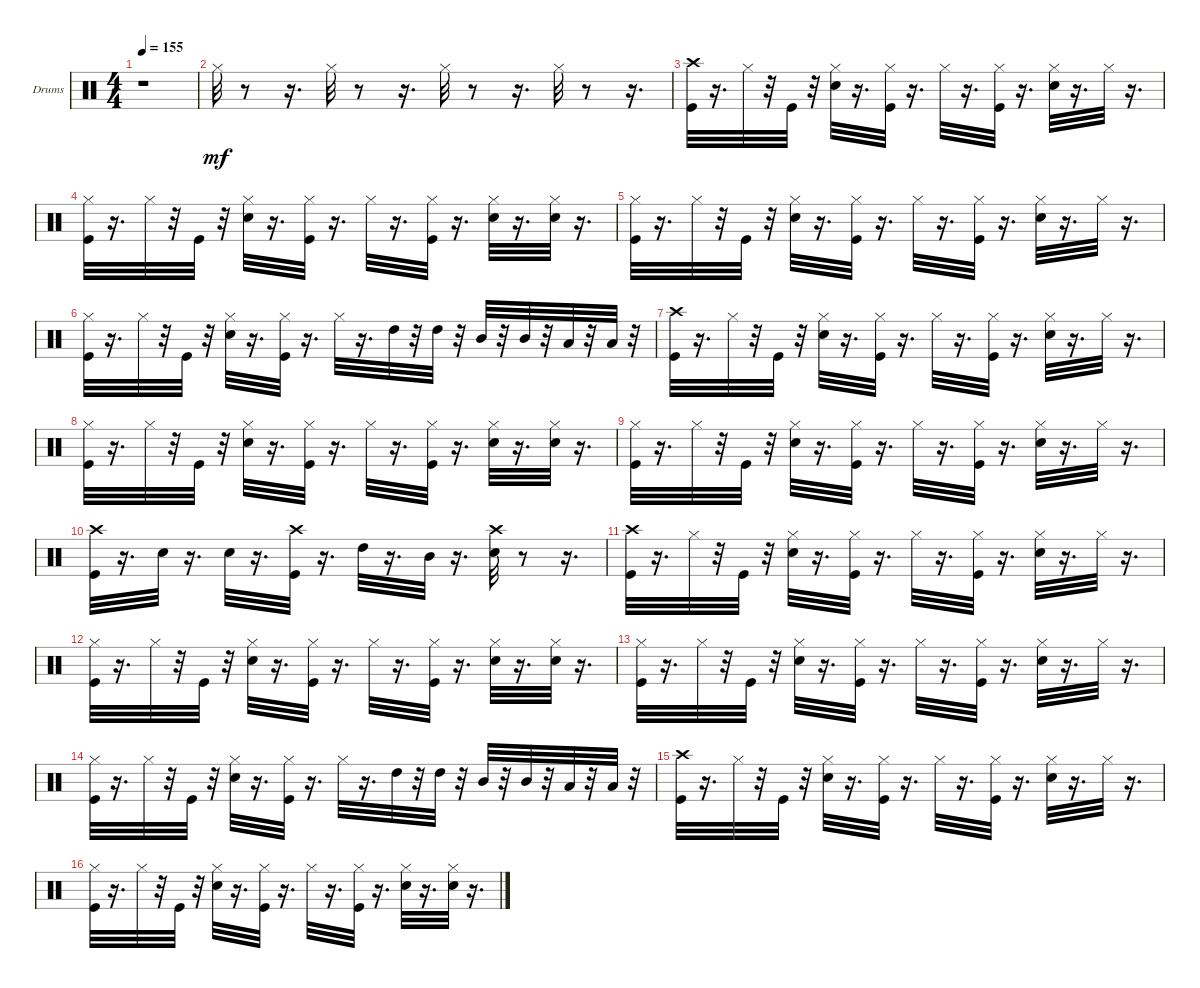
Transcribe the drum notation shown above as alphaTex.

\bracketExtendMode groupsimilarinstruments
\firstSystemTrackNameOrientation horizontal
\otherSystemsTrackNameOrientation horizontal
\track ("" "Drums") {instrument percussion}
\staff {score}
\articulation defaults
\ts (4 4)
\tempo 155
\clef neutral
\ks c
r.1{dy mf} |
"Hi-Hat (closed)".32 r.8 r.16{d} "Hi-Hat (closed)".32 r.8 r.16{d} "Hi-Hat (closed)".32 r.8 r.16{d} "Hi-Hat (closed)".32 r.8 r.16{d} |
("Crash high (hit)" "Kick (hit)").32 r.16{d} "Hi-Hat (closed)".32 r.32 "Kick (hit)".32 r.32 ("Hi-Hat (closed)" "Snare (hit) 2").32 r.16{d} ("Kick (hit)" "Hi-Hat (closed)").32 r.16{d} "Hi-Hat (closed)".32 r.16{d} ("Kick (hit)" "Hi-Hat (closed)").32 r.16{d} ("Hi-Hat (closed)" "Snare (hit) 2").32 r.16{d} "Hi-Hat (closed)".32 r.16{d} |
("Hi-Hat (closed)" "Kick (hit)").32 r.16{d} "Hi-Hat (closed)".32 r.32 "Kick (hit)".32 r.32 ("Hi-Hat (closed)" "Snare (hit) 2").32 r.16{d} ("Kick (hit)" "Hi-Hat (closed)").32 r.16{d} "Hi-Hat (closed)".32 r.16{d} ("Kick (hit)" "Hi-Hat (closed)").32 r.16{d} ("Hi-Hat (closed)" "Snare (hit) 2").32 r.16{d} ("Snare (hit) 2" "Hi-Hat (closed)").32 r.16{d} |
("Hi-Hat (closed)" "Kick (hit)").32 r.16{d} "Hi-Hat (closed)".32 r.32 "Kick (hit)".32 r.32 ("Hi-Hat (closed)" "Snare (hit) 2").32 r.16{d} ("Kick (hit)" "Hi-Hat (closed)").32 r.16{d} "Hi-Hat (closed)".32 r.16{d} ("Kick (hit)" "Hi-Hat (closed)").32 r.16{d} ("Hi-Hat (closed)" "Snare (hit) 2").32 r.16{d} "Hi-Hat (closed)".32 r.16{d} |
("Hi-Hat (closed)" "Kick (hit)").32 r.16{d} "Hi-Hat (closed)".32 r.32 "Kick (hit)".32 r.32 ("Hi-Hat (closed)" "Snare (hit) 2").32 r.16{d} ("Kick (hit)" "Hi-Hat (closed)").32 r.16{d} "Hi-Hat (closed)".32 r.16{d} "High Tom (hit)".32 r.32 "High Tom (hit)".32 r.32 "Mid Tom (hit)".32 r.32 "Mid Tom (hit)".32 r.32 "Low Tom (hit)".32 r.32 "Low Tom (hit)".32 r.32 |
("Crash high (hit)" "Kick (hit)").32 r.16{d} "Hi-Hat (closed)".32 r.32 "Kick (hit)".32 r.32 ("Hi-Hat (closed)" "Snare (hit) 2").32 r.16{d} ("Kick (hit)" "Hi-Hat (closed)").32 r.16{d} "Hi-Hat (closed)".32 r.16{d} ("Kick (hit)" "Hi-Hat (closed)").32 r.16{d} ("Hi-Hat (closed)" "Snare (hit) 2").32 r.16{d} "Hi-Hat (closed)".32 r.16{d} |
("Hi-Hat (closed)" "Kick (hit)").32 r.16{d} "Hi-Hat (closed)".32 r.32 "Kick (hit)".32 r.32 ("Hi-Hat (closed)" "Snare (hit) 2").32 r.16{d} ("Kick (hit)" "Hi-Hat (closed)").32 r.16{d} "Hi-Hat (closed)".32 r.16{d} ("Kick (hit)" "Hi-Hat (closed)").32 r.16{d} ("Hi-Hat (closed)" "Snare (hit) 2").32 r.16{d} ("Snare (hit) 2" "Hi-Hat (closed)").32 r.16{d} |
("Hi-Hat (closed)" "Kick (hit)").32 r.16{d} "Hi-Hat (closed)".32 r.32 "Kick (hit)".32 r.32 ("Hi-Hat (closed)" "Snare (hit) 2").32 r.16{d} ("Kick (hit)" "Hi-Hat (closed)").32 r.16{d} "Hi-Hat (closed)".32 r.16{d} ("Kick (hit)" "Hi-Hat (closed)").32 r.16{d} ("Hi-Hat (closed)" "Snare (hit) 2").32 r.16{d} "Hi-Hat (closed)".32 r.16{d} |
("Crash high (hit)" "Kick (hit)").32 r.16{d} "Snare (hit) 2".32 r.16{d} "Snare (hit) 2".32 r.16{d} ("Crash high (hit)" "Kick (hit)").32 r.16{d} "High Tom (hit)".32 r.16{d} "Mid Tom (hit)".32 r.16{d} ("Crash high (hit)" "Snare (hit) 2").32 r.8 r.16{d} |
("Crash high (hit)" "Kick (hit)").32 r.16{d} "Hi-Hat (closed)".32 r.32 "Kick (hit)".32 r.32 ("Hi-Hat (closed)" "Snare (hit) 2").32 r.16{d} ("Kick (hit)" "Hi-Hat (closed)").32 r.16{d} "Hi-Hat (closed)".32 r.16{d} ("Kick (hit)" "Hi-Hat (closed)").32 r.16{d} ("Hi-Hat (closed)" "Snare (hit) 2").32 r.16{d} "Hi-Hat (closed)".32 r.16{d} |
("Hi-Hat (closed)" "Kick (hit)").32 r.16{d} "Hi-Hat (closed)".32 r.32 "Kick (hit)".32 r.32 ("Hi-Hat (closed)" "Snare (hit) 2").32 r.16{d} ("Kick (hit)" "Hi-Hat (closed)").32 r.16{d} "Hi-Hat (closed)".32 r.16{d} ("Kick (hit)" "Hi-Hat (closed)").32 r.16{d} ("Hi-Hat (closed)" "Snare (hit) 2").32 r.16{d} ("Snare (hit) 2" "Hi-Hat (closed)").32 r.16{d} |
("Hi-Hat (closed)" "Kick (hit)").32 r.16{d} "Hi-Hat (closed)".32 r.32 "Kick (hit)".32 r.32 ("Hi-Hat (closed)" "Snare (hit) 2").32 r.16{d} ("Kick (hit)" "Hi-Hat (closed)").32 r.16{d} "Hi-Hat (closed)".32 r.16{d} ("Kick (hit)" "Hi-Hat (closed)").32 r.16{d} ("Hi-Hat (closed)" "Snare (hit) 2").32 r.16{d} "Hi-Hat (closed)".32 r.16{d} |
("Hi-Hat (closed)" "Kick (hit)").32 r.16{d} "Hi-Hat (closed)".32 r.32 "Kick (hit)".32 r.32 ("Hi-Hat (closed)" "Snare (hit) 2").32 r.16{d} ("Kick (hit)" "Hi-Hat (closed)").32 r.16{d} "Hi-Hat (closed)".32 r.16{d} "High Tom (hit)".32 r.32 "High Tom (hit)".32 r.32 "Mid Tom (hit)".32 r.32 "Mid Tom (hit)".32 r.32 "Low Tom (hit)".32 r.32 "Low Tom (hit)".32 r.32 |
("Crash high (hit)" "Kick (hit)").32 r.16{d} "Hi-Hat (closed)".32 r.32 "Kick (hit)".32 r.32 ("Hi-Hat (closed)" "Snare (hit) 2").32 r.16{d} ("Kick (hit)" "Hi-Hat (closed)").32 r.16{d} "Hi-Hat (closed)".32 r.16{d} ("Kick (hit)" "Hi-Hat (closed)").32 r.16{d} ("Hi-Hat (closed)" "Snare (hit) 2").32 r.16{d} "Hi-Hat (closed)".32 r.16{d} |
("Hi-Hat (closed)" "Kick (hit)").32 r.16{d} "Hi-Hat (closed)".32 r.32 "Kick (hit)".32 r.32 ("Hi-Hat (closed)" "Snare (hit) 2").32 r.16{d} ("Kick (hit)" "Hi-Hat (closed)").32 r.16{d} "Hi-Hat (closed)".32 r.16{d} ("Kick (hit)" "Hi-Hat (closed)").32 r.16{d} ("Hi-Hat (closed)" "Snare (hit) 2").32 r.16{d} ("Snare (hit) 2" "Hi-Hat (closed)").32 r.16{d}
